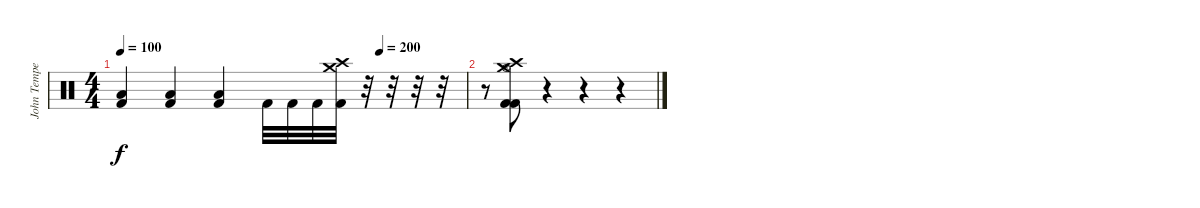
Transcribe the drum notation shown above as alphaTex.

\track ("John Tempesta" "John Tempe") {instrument percussion}
\staff {score}
\articulation defaults
\ts (4 4)
\tempo 100
\tempo (200 0.75)
\clef neutral
\ks c
("Kick (hit) 2" "Low Floor Tom (hit)").4{dy f} ("Kick (hit) 2" "Low Floor Tom (hit)").4 ("Kick (hit) 2" "Low Floor Tom (hit)").4 "Kick (hit) 2".32 "Kick (hit) 2".32 "Kick (hit) 2".32 ("Kick (hit) 2" "Crash medium (hit)" "Crash high (hit)").32 r.32 r.32 r.32 r.32 |
r.8 ("Kick (hit) 2" "Crash medium (hit)" "Crash high (hit)" "Hi-Hat (open)" "Kick (hit) 2").8 r.4 r.4 r.4
